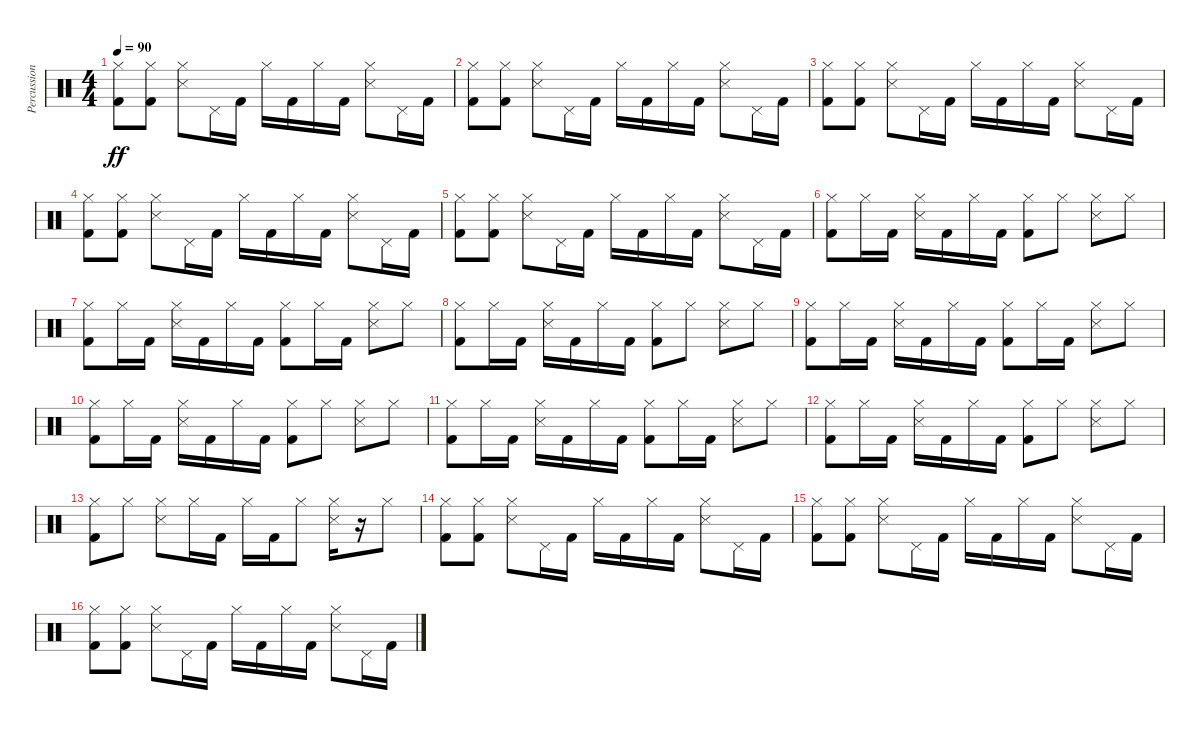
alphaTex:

\track ("Percussions" "Percussion") {instrument percussion}
\staff {score}
\articulation defaults
\ts (4 4)
\tempo 90
\clef neutral
\ks c
("Kick (hit) 2" "Hi-Hat (closed)").8{dy ff} ("Kick (hit) 2" "Hi-Hat (closed)").8 ("Snare (side stick) 3" "Hi-Hat (closed)").8 "Pedal Hi-Hat (hit)".16 "Kick (hit) 2".16 "Hi-Hat (closed)".16 "Kick (hit) 2".16 "Hi-Hat (closed)".16 "Kick (hit) 2".16 ("Snare (side stick) 3" "Hi-Hat (closed)").8 "Pedal Hi-Hat (hit)".16 "Kick (hit) 2".16 |
("Kick (hit) 2" "Hi-Hat (closed)").8 ("Kick (hit) 2" "Hi-Hat (closed)").8 ("Snare (side stick) 3" "Hi-Hat (closed)").8 "Pedal Hi-Hat (hit)".16 "Kick (hit) 2".16 "Hi-Hat (closed)".16 "Kick (hit) 2".16 "Hi-Hat (closed)".16 "Kick (hit) 2".16 ("Snare (side stick) 3" "Hi-Hat (closed)").8 "Pedal Hi-Hat (hit)".16 "Kick (hit) 2".16 |
("Kick (hit) 2" "Hi-Hat (closed)").8 ("Kick (hit) 2" "Hi-Hat (closed)").8 ("Snare (side stick) 3" "Hi-Hat (closed)").8 "Pedal Hi-Hat (hit)".16 "Kick (hit) 2".16 "Hi-Hat (closed)".16 "Kick (hit) 2".16 "Hi-Hat (closed)".16 "Kick (hit) 2".16 ("Snare (side stick) 3" "Hi-Hat (closed)").8 "Pedal Hi-Hat (hit)".16 "Kick (hit) 2".16 |
("Kick (hit) 2" "Hi-Hat (closed)").8 ("Kick (hit) 2" "Hi-Hat (closed)").8 ("Snare (side stick) 3" "Hi-Hat (closed)").8 "Pedal Hi-Hat (hit)".16 "Kick (hit) 2".16 "Hi-Hat (closed)".16 "Kick (hit) 2".16 "Hi-Hat (closed)".16 "Kick (hit) 2".16 ("Snare (side stick) 3" "Hi-Hat (closed)").8 "Pedal Hi-Hat (hit)".16 "Kick (hit) 2".16 |
("Kick (hit) 2" "Hi-Hat (closed)").8 ("Kick (hit) 2" "Hi-Hat (closed)").8 ("Snare (side stick) 3" "Hi-Hat (closed)").8 "Pedal Hi-Hat (hit)".16 "Kick (hit) 2".16 "Hi-Hat (closed)".16 "Kick (hit) 2".16 "Hi-Hat (closed)".16 "Kick (hit) 2".16 ("Snare (side stick) 3" "Hi-Hat (closed)").8 "Pedal Hi-Hat (hit)".16 "Kick (hit) 2".16 |
("Kick (hit) 2" "Hi-Hat (closed)").8 "Hi-Hat (closed)".16 "Kick (hit) 2".16 ("Snare (side stick) 3" "Hi-Hat (closed)").16 "Kick (hit) 2".16 "Hi-Hat (closed)".16 "Kick (hit) 2".16 ("Kick (hit) 2" "Hi-Hat (closed)").8 "Hi-Hat (closed)".8 ("Snare (side stick) 3" "Hi-Hat (closed)").8 "Hi-Hat (closed)".8 |
("Kick (hit) 2" "Hi-Hat (closed)").8 "Hi-Hat (closed)".16 "Kick (hit) 2".16 ("Snare (side stick) 3" "Hi-Hat (closed)").16 "Kick (hit) 2".16 "Hi-Hat (closed)".16 "Kick (hit) 2".16 ("Kick (hit) 2" "Hi-Hat (closed)").8 "Hi-Hat (closed)".16 "Kick (hit) 2".16 ("Snare (side stick) 3" "Hi-Hat (closed)").8 "Hi-Hat (closed)".8 |
("Kick (hit) 2" "Hi-Hat (closed)").8 "Hi-Hat (closed)".16 "Kick (hit) 2".16 ("Snare (side stick) 3" "Hi-Hat (closed)").16 "Kick (hit) 2".16 "Hi-Hat (closed)".16 "Kick (hit) 2".16 ("Kick (hit) 2" "Hi-Hat (closed)").8 "Hi-Hat (closed)".8 ("Snare (side stick) 3" "Hi-Hat (closed)").8 "Hi-Hat (closed)".8 |
("Kick (hit) 2" "Hi-Hat (closed)").8 "Hi-Hat (closed)".16 "Kick (hit) 2".16 ("Snare (side stick) 3" "Hi-Hat (closed)").16 "Kick (hit) 2".16 "Hi-Hat (closed)".16 "Kick (hit) 2".16 ("Kick (hit) 2" "Hi-Hat (closed)").8 "Hi-Hat (closed)".16 "Kick (hit) 2".16 ("Snare (side stick) 3" "Hi-Hat (closed)").8 "Hi-Hat (closed)".8 |
("Kick (hit) 2" "Hi-Hat (closed)").8 "Hi-Hat (closed)".16 "Kick (hit) 2".16 ("Snare (side stick) 3" "Hi-Hat (closed)").16 "Kick (hit) 2".16 "Hi-Hat (closed)".16 "Kick (hit) 2".16 ("Kick (hit) 2" "Hi-Hat (closed)").8 "Hi-Hat (closed)".8 ("Snare (side stick) 3" "Hi-Hat (closed)").8 "Hi-Hat (closed)".8 |
("Kick (hit) 2" "Hi-Hat (closed)").8 "Hi-Hat (closed)".16 "Kick (hit) 2".16 ("Snare (side stick) 3" "Hi-Hat (closed)").16 "Kick (hit) 2".16 "Hi-Hat (closed)".16 "Kick (hit) 2".16 ("Kick (hit) 2" "Hi-Hat (closed)").8 "Hi-Hat (closed)".16 "Kick (hit) 2".16 ("Snare (side stick) 3" "Hi-Hat (closed)").8 "Hi-Hat (closed)".8 |
("Kick (hit) 2" "Hi-Hat (closed)").8 "Hi-Hat (closed)".16 "Kick (hit) 2".16 ("Snare (side stick) 3" "Hi-Hat (closed)").16 "Kick (hit) 2".16 "Hi-Hat (closed)".16 "Kick (hit) 2".16 ("Kick (hit) 2" "Hi-Hat (closed)").8 "Hi-Hat (closed)".8 ("Snare (side stick) 3" "Hi-Hat (closed)").8 "Hi-Hat (closed)".8 |
("Kick (hit) 2" "Hi-Hat (closed)").8 "Hi-Hat (closed)".8 ("Snare (side stick) 3" "Hi-Hat (closed)").8 "Hi-Hat (closed)".16 "Kick (hit) 2".16 "Hi-Hat (closed)".16 "Kick (hit) 2".16 "Hi-Hat (closed)".8 ("Snare (side stick) 3" "Hi-Hat (closed)").16 r.16 "Hi-Hat (closed)".8 |
("Kick (hit) 2" "Hi-Hat (closed)").8 ("Kick (hit) 2" "Hi-Hat (closed)").8 ("Snare (side stick) 3" "Hi-Hat (closed)").8 "Pedal Hi-Hat (hit)".16 "Kick (hit) 2".16 "Hi-Hat (closed)".16 "Kick (hit) 2".16 "Hi-Hat (closed)".16 "Kick (hit) 2".16 ("Snare (side stick) 3" "Hi-Hat (closed)").8 "Pedal Hi-Hat (hit)".16 "Kick (hit) 2".16 |
("Kick (hit) 2" "Hi-Hat (closed)").8 ("Kick (hit) 2" "Hi-Hat (closed)").8 ("Snare (side stick) 3" "Hi-Hat (closed)").8 "Pedal Hi-Hat (hit)".16 "Kick (hit) 2".16 "Hi-Hat (closed)".16 "Kick (hit) 2".16 "Hi-Hat (closed)".16 "Kick (hit) 2".16 ("Snare (side stick) 3" "Hi-Hat (closed)").8 "Pedal Hi-Hat (hit)".16 "Kick (hit) 2".16 |
("Kick (hit) 2" "Hi-Hat (closed)").8 ("Kick (hit) 2" "Hi-Hat (closed)").8 ("Snare (side stick) 3" "Hi-Hat (closed)").8 "Pedal Hi-Hat (hit)".16 "Kick (hit) 2".16 "Hi-Hat (closed)".16 "Kick (hit) 2".16 "Hi-Hat (closed)".16 "Kick (hit) 2".16 ("Snare (side stick) 3" "Hi-Hat (closed)").8 "Pedal Hi-Hat (hit)".16 "Kick (hit) 2".16
